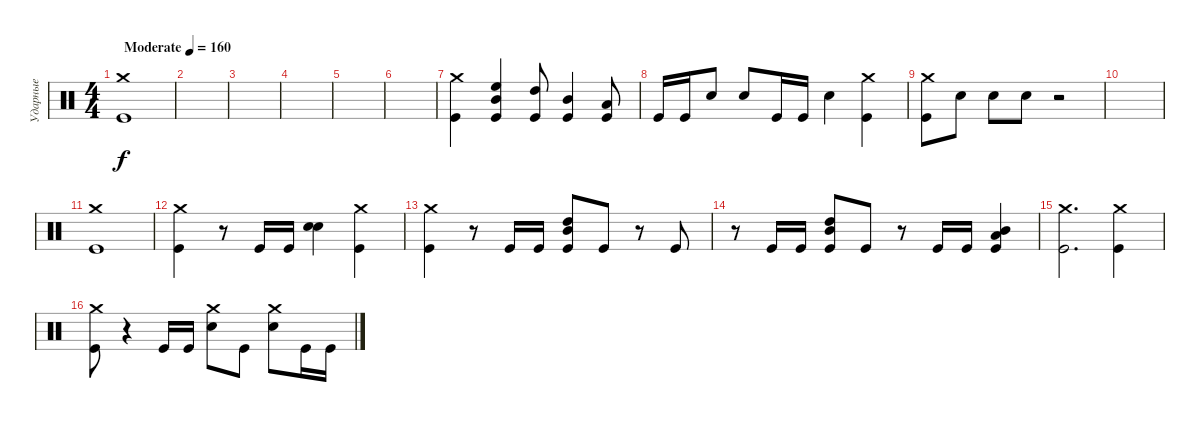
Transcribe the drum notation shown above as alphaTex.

\track ("Ударные" "Ударные") {instrument percussion}
\staff {score}
\articulation defaults
\ts (4 4)
\tempo (160 "Moderate")
\clef neutral
\ks c
("Kick (hit)" "Crash medium (hit)").1{dy f} |
|
|
|
|
|
("Kick (hit)" "Crash medium (hit)").4 ("Kick (hit)" "High Floor Tom (hit)" "Mid Tom (hit)").4{bd 60} ("Kick (hit)" "High Tom (hit)").8 ("Kick (hit)" "Mid Tom (hit)").4 ("Kick (hit)" "Low Tom (hit)").8 |
"Kick (hit)".16 "Kick (hit)".16 "Snare (hit) 2".8 "Snare (hit) 2".8 "Kick (hit)".16 "Kick (hit)".16 "Snare (hit) 2".4 ("Kick (hit)" "Crash medium (hit)").4 |
("Kick (hit)" "Crash medium (hit)").8 "Snare (hit) 2".8 "Snare (hit) 2".8 "Snare (hit) 2".8 r.2 |
|
("Kick (hit)" "Crash medium (hit)").1 |
("Kick (hit)" "Crash medium (hit)").4 r.8 "Kick (hit)".16 "Kick (hit)".16 ("Snare (hit) 2" "Snare (hit) 2").4{bd 60} ("Kick (hit)" "Crash medium (hit)").4 |
("Kick (hit)" "Crash medium (hit)").4 r.8 "Kick (hit)".16 "Kick (hit)".16 ("Kick (hit)" "Mid Tom (hit)" "High Tom (hit)").8{bd 60} "Kick (hit)".8 r.8 "Kick (hit)".8 |
r.8 "Kick (hit)".16 "Kick (hit)".16 ("Kick (hit)" "Mid Tom (hit)" "High Tom (hit)").8{bd 60} "Kick (hit)".8 r.8 "Kick (hit)".16 "Kick (hit)".16 ("Kick (hit)" "Low Tom (hit)" "Mid Tom (hit)").4{bd 60} |
("Kick (hit)" "Crash medium (hit)").2{d} ("Kick (hit)" "Crash medium (hit)").4 |
("Kick (hit)" "Crash medium (hit)").8 r.4 "Kick (hit)".16 "Kick (hit)".16 ("Snare (hit) 2" "Crash medium (hit)").8 "Kick (hit)".8 ("Snare (hit) 2" "Crash medium (hit)").8 "Kick (hit)".16 "Kick (hit)".16
